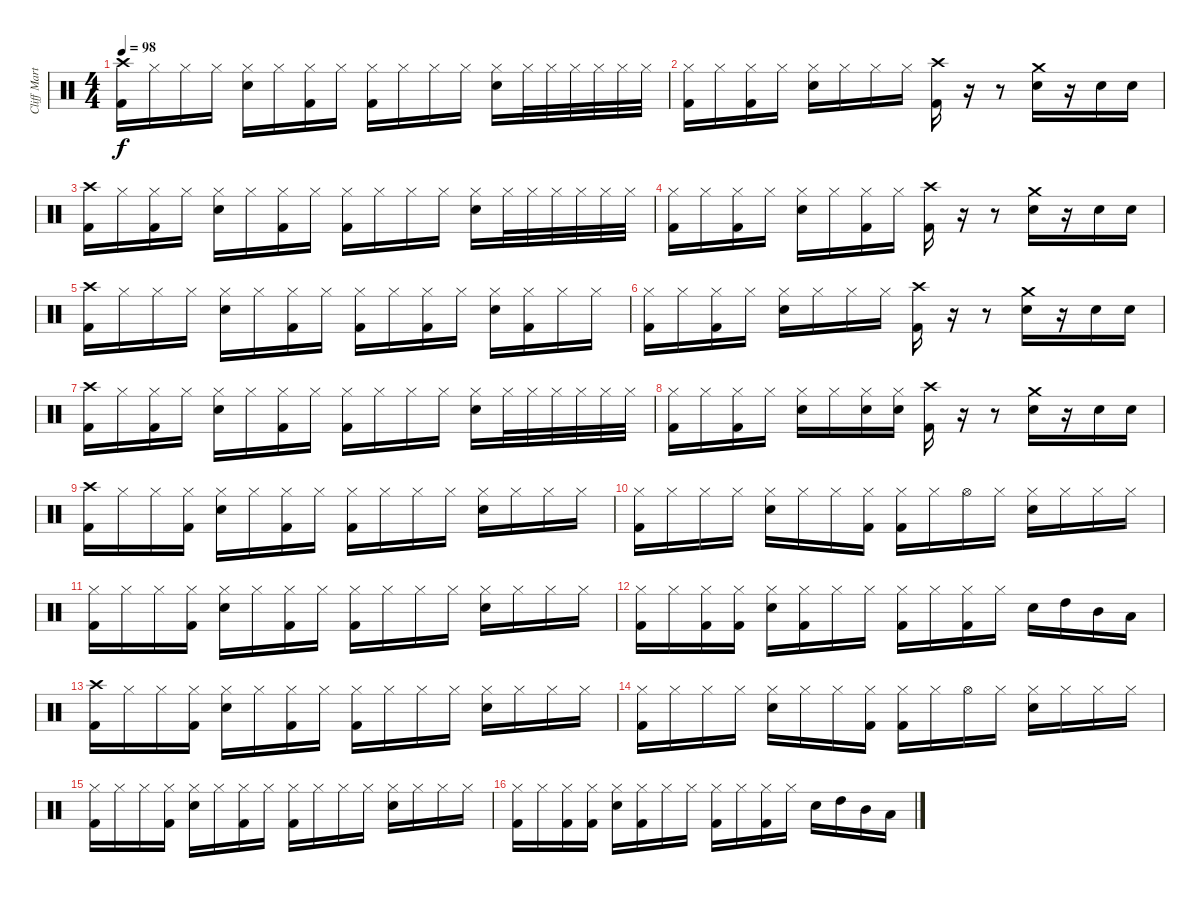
\track ("Cliff Martinez" "Cliff Mart") {instrument percussion bank 1}
\staff {score}
\articulation defaults
\ts (4 4)
\tempo 98
\clef neutral
\ks c
("Crash high (hit)" "Kick (hit) 2").16{dy f} "Hi-Hat (closed)".16 "Hi-Hat (closed)".16 "Hi-Hat (closed)".16 ("Hi-Hat (closed)" "Snare (hit) 2").16 "Hi-Hat (closed)".16 ("Hi-Hat (closed)" "Kick (hit) 2").16 "Hi-Hat (closed)".16 ("Hi-Hat (closed)" "Kick (hit) 2").16 "Hi-Hat (closed)".16 "Hi-Hat (closed)".16 "Hi-Hat (closed)".16 ("Hi-Hat (closed)" "Snare (hit) 2").16 "Hi-Hat (closed)".32 "Hi-Hat (closed)".32 "Hi-Hat (closed)".32 "Hi-Hat (closed)".32 "Hi-Hat (closed)".32 "Hi-Hat (closed)".32 |
("Hi-Hat (closed)" "Kick (hit) 2").16 "Hi-Hat (closed)".16 ("Hi-Hat (closed)" "Kick (hit) 2").16 "Hi-Hat (closed)".16 ("Hi-Hat (closed)" "Snare (hit) 2").16 "Hi-Hat (closed)".16 "Hi-Hat (closed)".16 "Hi-Hat (closed)".16 ("Crash high (hit)" "Kick (hit) 2").16 r.16 r.8 ("Crash medium (hit)" "Snare (hit) 2").16 r.16 "Snare (hit) 2".16 "Snare (hit) 2".16 |
("Crash high (hit)" "Kick (hit) 2").16 "Hi-Hat (closed)".16 ("Hi-Hat (closed)" "Kick (hit) 2").16 "Hi-Hat (closed)".16 ("Hi-Hat (closed)" "Snare (hit) 2").16 "Hi-Hat (closed)".16 ("Hi-Hat (closed)" "Kick (hit) 2").16 "Hi-Hat (closed)".16 ("Hi-Hat (closed)" "Kick (hit) 2").16 "Hi-Hat (closed)".16 "Hi-Hat (closed)".16 "Hi-Hat (closed)".16 ("Hi-Hat (closed)" "Snare (hit) 2").16 "Hi-Hat (closed)".32 "Hi-Hat (closed)".32 "Hi-Hat (closed)".32 "Hi-Hat (closed)".32 "Hi-Hat (closed)".32 "Hi-Hat (closed)".32 |
("Hi-Hat (closed)" "Kick (hit) 2").16 "Hi-Hat (closed)".16 ("Hi-Hat (closed)" "Kick (hit) 2").16 "Hi-Hat (closed)".16 ("Hi-Hat (closed)" "Snare (hit) 2").16 "Hi-Hat (closed)".16 ("Hi-Hat (closed)" "Kick (hit) 2").16 "Hi-Hat (closed)".16 ("Crash high (hit)" "Kick (hit) 2").16 r.16 r.8 ("Crash medium (hit)" "Snare (hit) 2").16 r.16 "Snare (hit) 2".16 "Snare (hit) 2".16 |
("Crash high (hit)" "Kick (hit) 2").16 "Hi-Hat (closed)".16 "Hi-Hat (closed)".16 "Hi-Hat (closed)".16 ("Hi-Hat (closed)" "Snare (hit) 2").16 "Hi-Hat (closed)".16 ("Hi-Hat (closed)" "Kick (hit) 2").16 "Hi-Hat (closed)".16 ("Hi-Hat (closed)" "Kick (hit) 2").16 "Hi-Hat (closed)".16 ("Hi-Hat (closed)" "Kick (hit) 2").16 "Hi-Hat (closed)".16 ("Hi-Hat (closed)" "Snare (hit) 2").16 ("Hi-Hat (closed)" "Kick (hit) 2").16 "Hi-Hat (closed)".16 "Hi-Hat (closed)".16 |
("Hi-Hat (closed)" "Kick (hit) 2").16 "Hi-Hat (closed)".16 ("Hi-Hat (closed)" "Kick (hit) 2").16 "Hi-Hat (closed)".16 ("Hi-Hat (closed)" "Snare (hit) 2").16 "Hi-Hat (closed)".16 "Hi-Hat (closed)".16 "Hi-Hat (closed)".16 ("Crash high (hit)" "Kick (hit) 2").16 r.16 r.8 ("Crash medium (hit)" "Snare (hit) 2").16 r.16 "Snare (hit) 2".16 "Snare (hit) 2".16 |
("Crash high (hit)" "Kick (hit) 2").16 "Hi-Hat (closed)".16 ("Hi-Hat (closed)" "Kick (hit) 2").16 "Hi-Hat (closed)".16 ("Hi-Hat (closed)" "Snare (hit) 2").16 "Hi-Hat (closed)".16 ("Hi-Hat (closed)" "Kick (hit) 2").16 "Hi-Hat (closed)".16 ("Hi-Hat (closed)" "Kick (hit) 2").16 "Hi-Hat (closed)".16 "Hi-Hat (closed)".16 "Hi-Hat (closed)".16 ("Hi-Hat (closed)" "Snare (hit) 2").16 "Hi-Hat (closed)".32 "Hi-Hat (closed)".32 "Hi-Hat (closed)".32 "Hi-Hat (closed)".32 "Hi-Hat (closed)".32 "Hi-Hat (closed)".32 |
("Hi-Hat (closed)" "Kick (hit) 2").16 "Hi-Hat (closed)".16 ("Hi-Hat (closed)" "Kick (hit) 2").16 "Hi-Hat (closed)".16 ("Hi-Hat (closed)" "Snare (hit) 2").16 "Hi-Hat (closed)".16 ("Hi-Hat (closed)" "Snare (hit) 2").16 ("Hi-Hat (closed)" "Snare (hit) 2").16 ("Crash high (hit)" "Kick (hit) 2").16 r.16 r.8 ("Crash medium (hit)" "Snare (hit) 2").16 r.16 "Snare (hit) 2".16 "Snare (hit) 2".16 |
("Crash high (hit)" "Kick (hit) 2").16 "Hi-Hat (closed)".16 "Hi-Hat (closed)".16 ("Hi-Hat (closed)" "Kick (hit) 2").16 ("Hi-Hat (closed)" "Snare (hit) 2").16 "Hi-Hat (closed)".16 ("Hi-Hat (closed)" "Kick (hit) 2").16 "Hi-Hat (closed)".16 ("Hi-Hat (closed)" "Kick (hit) 2").16 "Hi-Hat (closed)".16 "Hi-Hat (closed)".16 "Hi-Hat (closed)".16 ("Hi-Hat (closed)" "Snare (hit) 2").16 "Hi-Hat (closed)".16 "Hi-Hat (closed)".16 "Hi-Hat (closed)".16 |
("Hi-Hat (closed)" "Kick (hit) 2").16 "Hi-Hat (closed)".16 "Hi-Hat (closed)".16 "Hi-Hat (closed)".16 ("Hi-Hat (closed)" "Snare (hit) 2").16 "Hi-Hat (closed)".16 "Hi-Hat (closed)".16 ("Hi-Hat (closed)" "Kick (hit) 2").16 ("Hi-Hat (closed)" "Kick (hit) 2").16 "Hi-Hat (closed)".16 "Hi-Hat (open)".16 "Hi-Hat (closed)".16 ("Hi-Hat (closed)" "Snare (hit) 2").16 "Hi-Hat (closed)".16 "Hi-Hat (closed)".16 "Hi-Hat (closed)".16 |
("Hi-Hat (closed)" "Kick (hit) 2").16 "Hi-Hat (closed)".16 "Hi-Hat (closed)".16 ("Hi-Hat (closed)" "Kick (hit) 2").16 ("Hi-Hat (closed)" "Snare (hit) 2").16 "Hi-Hat (closed)".16 ("Hi-Hat (closed)" "Kick (hit) 2").16 "Hi-Hat (closed)".16 ("Hi-Hat (closed)" "Kick (hit) 2").16 "Hi-Hat (closed)".16 "Hi-Hat (closed)".16 "Hi-Hat (closed)".16 ("Hi-Hat (closed)" "Snare (hit) 2").16 "Hi-Hat (closed)".16 "Hi-Hat (closed)".16 "Hi-Hat (closed)".16 |
("Hi-Hat (closed)" "Kick (hit) 2").16 "Hi-Hat (closed)".16 ("Hi-Hat (closed)" "Kick (hit) 2").16 ("Hi-Hat (closed)" "Kick (hit) 2").16 ("Hi-Hat (closed)" "Snare (hit) 2").16 ("Hi-Hat (closed)" "Kick (hit) 2").16 "Hi-Hat (closed)".16 "Hi-Hat (closed)".16 ("Hi-Hat (closed)" "Kick (hit) 2").16 "Hi-Hat (closed)".16 ("Hi-Hat (closed)" "Kick (hit) 2").16 "Hi-Hat (closed)".16 "Snare (hit) 2".16 "High Tom (hit)".16 "Mid Tom (hit)".16 "Low Tom (hit)".16 |
("Crash high (hit)" "Kick (hit) 2").16 "Hi-Hat (closed)".16 "Hi-Hat (closed)".16 ("Hi-Hat (closed)" "Kick (hit) 2").16 ("Hi-Hat (closed)" "Snare (hit) 2").16 "Hi-Hat (closed)".16 ("Hi-Hat (closed)" "Kick (hit) 2").16 "Hi-Hat (closed)".16 ("Hi-Hat (closed)" "Kick (hit) 2").16 "Hi-Hat (closed)".16 "Hi-Hat (closed)".16 "Hi-Hat (closed)".16 ("Hi-Hat (closed)" "Snare (hit) 2").16 "Hi-Hat (closed)".16 "Hi-Hat (closed)".16 "Hi-Hat (closed)".16 |
("Hi-Hat (closed)" "Kick (hit) 2").16 "Hi-Hat (closed)".16 "Hi-Hat (closed)".16 "Hi-Hat (closed)".16 ("Hi-Hat (closed)" "Snare (hit) 2").16 "Hi-Hat (closed)".16 "Hi-Hat (closed)".16 ("Hi-Hat (closed)" "Kick (hit) 2").16 ("Hi-Hat (closed)" "Kick (hit) 2").16 "Hi-Hat (closed)".16 "Hi-Hat (open)".16 "Hi-Hat (closed)".16 ("Hi-Hat (closed)" "Snare (hit) 2").16 "Hi-Hat (closed)".16 "Hi-Hat (closed)".16 "Hi-Hat (closed)".16 |
("Hi-Hat (closed)" "Kick (hit) 2").16 "Hi-Hat (closed)".16 "Hi-Hat (closed)".16 ("Hi-Hat (closed)" "Kick (hit) 2").16 ("Hi-Hat (closed)" "Snare (hit) 2").16 "Hi-Hat (closed)".16 ("Hi-Hat (closed)" "Kick (hit) 2").16 "Hi-Hat (closed)".16 ("Hi-Hat (closed)" "Kick (hit) 2").16 "Hi-Hat (closed)".16 "Hi-Hat (closed)".16 "Hi-Hat (closed)".16 ("Hi-Hat (closed)" "Snare (hit) 2").16 "Hi-Hat (closed)".16 "Hi-Hat (closed)".16 "Hi-Hat (closed)".16 |
("Hi-Hat (closed)" "Kick (hit) 2").16 "Hi-Hat (closed)".16 ("Hi-Hat (closed)" "Kick (hit) 2").16 ("Hi-Hat (closed)" "Kick (hit) 2").16 ("Hi-Hat (closed)" "Snare (hit) 2").16 ("Hi-Hat (closed)" "Kick (hit) 2").16 "Hi-Hat (closed)".16 "Hi-Hat (closed)".16 ("Hi-Hat (closed)" "Kick (hit) 2").16 "Hi-Hat (closed)".16 ("Hi-Hat (closed)" "Kick (hit) 2").16 "Hi-Hat (closed)".16 "Snare (hit) 2".16 "High Tom (hit)".16 "Mid Tom (hit)".16 "Low Tom (hit)".16
